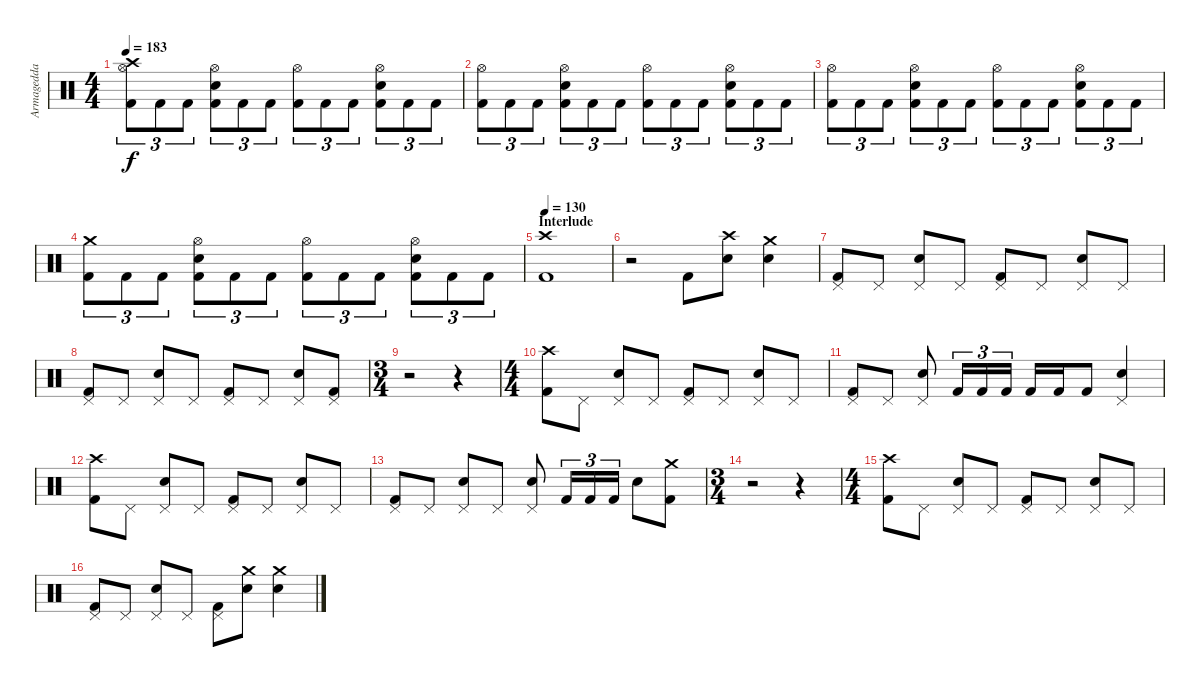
\track ("Armagedda" "Armagedda") {instrument percussion}
\staff {score}
\articulation defaults
\ts (4 4)
\tempo 183
\clef neutral
\ks c
("Crash high (hit)" "Hi-Hat (open)" "Kick (hit) 2").8{tu (3 2) dy f} "Kick (hit) 2".8{tu (3 2)} "Kick (hit) 2".8{tu (3 2)} ("Hi-Hat (open)" "Electric Snare (hit)" "Kick (hit) 2").8{tu (3 2)} "Kick (hit) 2".8{tu (3 2)} "Kick (hit) 2".8{tu (3 2)} ("Hi-Hat (open)" "Kick (hit) 2").8{tu (3 2)} "Kick (hit) 2".8{tu (3 2)} "Kick (hit) 2".8{tu (3 2)} ("Hi-Hat (open)" "Electric Snare (hit)" "Kick (hit) 2").8{tu (3 2)} "Kick (hit) 2".8{tu (3 2)} "Kick (hit) 2".8{tu (3 2)} |
("Hi-Hat (open)" "Kick (hit) 2").8{tu (3 2)} "Kick (hit) 2".8{tu (3 2)} "Kick (hit) 2".8{tu (3 2)} ("Hi-Hat (open)" "Electric Snare (hit)" "Kick (hit) 2").8{tu (3 2)} "Kick (hit) 2".8{tu (3 2)} "Kick (hit) 2".8{tu (3 2)} ("Hi-Hat (open)" "Kick (hit) 2").8{tu (3 2)} "Kick (hit) 2".8{tu (3 2)} "Kick (hit) 2".8{tu (3 2)} ("Hi-Hat (open)" "Electric Snare (hit)" "Kick (hit) 2").8{tu (3 2)} "Kick (hit) 2".8{tu (3 2)} "Kick (hit) 2".8{tu (3 2)} |
("Hi-Hat (open)" "Kick (hit) 2").8{tu (3 2)} "Kick (hit) 2".8{tu (3 2)} "Kick (hit) 2".8{tu (3 2)} ("Hi-Hat (open)" "Electric Snare (hit)" "Kick (hit) 2").8{tu (3 2)} "Kick (hit) 2".8{tu (3 2)} "Kick (hit) 2".8{tu (3 2)} ("Hi-Hat (open)" "Kick (hit) 2").8{tu (3 2)} "Kick (hit) 2".8{tu (3 2)} "Kick (hit) 2".8{tu (3 2)} ("Hi-Hat (open)" "Electric Snare (hit)" "Kick (hit) 2").8{tu (3 2)} "Kick (hit) 2".8{tu (3 2)} "Kick (hit) 2".8{tu (3 2)} |
("Crash medium (hit)" "Kick (hit) 2").8{tu (3 2)} "Kick (hit) 2".8{tu (3 2)} "Kick (hit) 2".8{tu (3 2)} ("Hi-Hat (open)" "Electric Snare (hit)" "Kick (hit) 2").8{tu (3 2)} "Kick (hit) 2".8{tu (3 2)} "Kick (hit) 2".8{tu (3 2)} ("Hi-Hat (open)" "Kick (hit) 2").8{tu (3 2)} "Kick (hit) 2".8{tu (3 2)} "Kick (hit) 2".8{tu (3 2)} ("Hi-Hat (open)" "Electric Snare (hit)" "Kick (hit) 2").8{tu (3 2)} "Kick (hit) 2".8{tu (3 2)} "Kick (hit) 2".8{tu (3 2)} |
\section ("" "Interlude")
\tempo 130
("Crash high (hit)" "Kick (hit) 2").1 |
r.2 "Kick (hit) 2".8 ("Crash high (hit)" "Electric Snare (hit)").8 ("Crash medium (hit)" "Electric Snare (hit)").4 |
("Pedal Hi-Hat (hit)" "Kick (hit) 2").8 "Pedal Hi-Hat (hit)".8 ("Pedal Hi-Hat (hit)" "Electric Snare (hit)").8 "Pedal Hi-Hat (hit)".8 ("Pedal Hi-Hat (hit)" "Kick (hit) 2").8 "Pedal Hi-Hat (hit)".8 ("Pedal Hi-Hat (hit)" "Electric Snare (hit)").8 "Pedal Hi-Hat (hit)".8 |
("Pedal Hi-Hat (hit)" "Kick (hit) 2").8 "Pedal Hi-Hat (hit)".8 ("Pedal Hi-Hat (hit)" "Electric Snare (hit)").8 "Pedal Hi-Hat (hit)".8 ("Pedal Hi-Hat (hit)" "Kick (hit) 2").8 "Pedal Hi-Hat (hit)".8 ("Pedal Hi-Hat (hit)" "Electric Snare (hit)").8 ("Pedal Hi-Hat (hit)" "Kick (hit) 2").8 |
\ts (3 4)
r.2 r.4 |
\ts (4 4)
("Crash high (hit)" "Kick (hit) 2").8 "Pedal Hi-Hat (hit)".8 ("Pedal Hi-Hat (hit)" "Electric Snare (hit)").8 "Pedal Hi-Hat (hit)".8 ("Pedal Hi-Hat (hit)" "Kick (hit) 2").8 "Pedal Hi-Hat (hit)".8 ("Pedal Hi-Hat (hit)" "Electric Snare (hit)").8 "Pedal Hi-Hat (hit)".8 |
("Pedal Hi-Hat (hit)" "Kick (hit) 2").8 "Pedal Hi-Hat (hit)".8 ("Pedal Hi-Hat (hit)" "Electric Snare (hit)").8 "Kick (hit) 2".16{tu (3 2)} "Kick (hit) 2".16{tu (3 2)} "Kick (hit) 2".16{tu (3 2)} "Kick (hit) 2".16 "Kick (hit) 2".16 "Kick (hit) 2".8 ("Pedal Hi-Hat (hit)" "Electric Snare (hit)").4 |
("Crash high (hit)" "Kick (hit) 2").8 "Pedal Hi-Hat (hit)".8 ("Pedal Hi-Hat (hit)" "Electric Snare (hit)").8 "Pedal Hi-Hat (hit)".8 ("Pedal Hi-Hat (hit)" "Kick (hit) 2").8 "Pedal Hi-Hat (hit)".8 ("Pedal Hi-Hat (hit)" "Electric Snare (hit)").8 "Pedal Hi-Hat (hit)".8 |
("Pedal Hi-Hat (hit)" "Kick (hit) 2").8 "Pedal Hi-Hat (hit)".8 ("Pedal Hi-Hat (hit)" "Electric Snare (hit)").8 "Pedal Hi-Hat (hit)".8 ("Pedal Hi-Hat (hit)" "Electric Snare (hit)").8 "Kick (hit) 2".16{tu (3 2)} "Kick (hit) 2".16{tu (3 2)} "Kick (hit) 2".16{tu (3 2)} "Electric Snare (hit)".8 ("Crash medium (hit)" "Kick (hit) 2").8 |
\ts (3 4)
r.2 r.4 |
\ts (4 4)
("Crash high (hit)" "Kick (hit) 2").8 "Pedal Hi-Hat (hit)".8 ("Pedal Hi-Hat (hit)" "Electric Snare (hit)").8 "Pedal Hi-Hat (hit)".8 ("Pedal Hi-Hat (hit)" "Kick (hit) 2").8 "Pedal Hi-Hat (hit)".8 ("Pedal Hi-Hat (hit)" "Electric Snare (hit)").8 "Pedal Hi-Hat (hit)".8 |
("Pedal Hi-Hat (hit)" "Kick (hit) 2").8 "Pedal Hi-Hat (hit)".8 ("Pedal Hi-Hat (hit)" "Electric Snare (hit)").8 "Pedal Hi-Hat (hit)".8 ("Pedal Hi-Hat (hit)" "Kick (hit) 2").8 ("Crash medium (hit)" "Electric Snare (hit)").8 ("Crash medium (hit)" "Electric Snare (hit)").4
